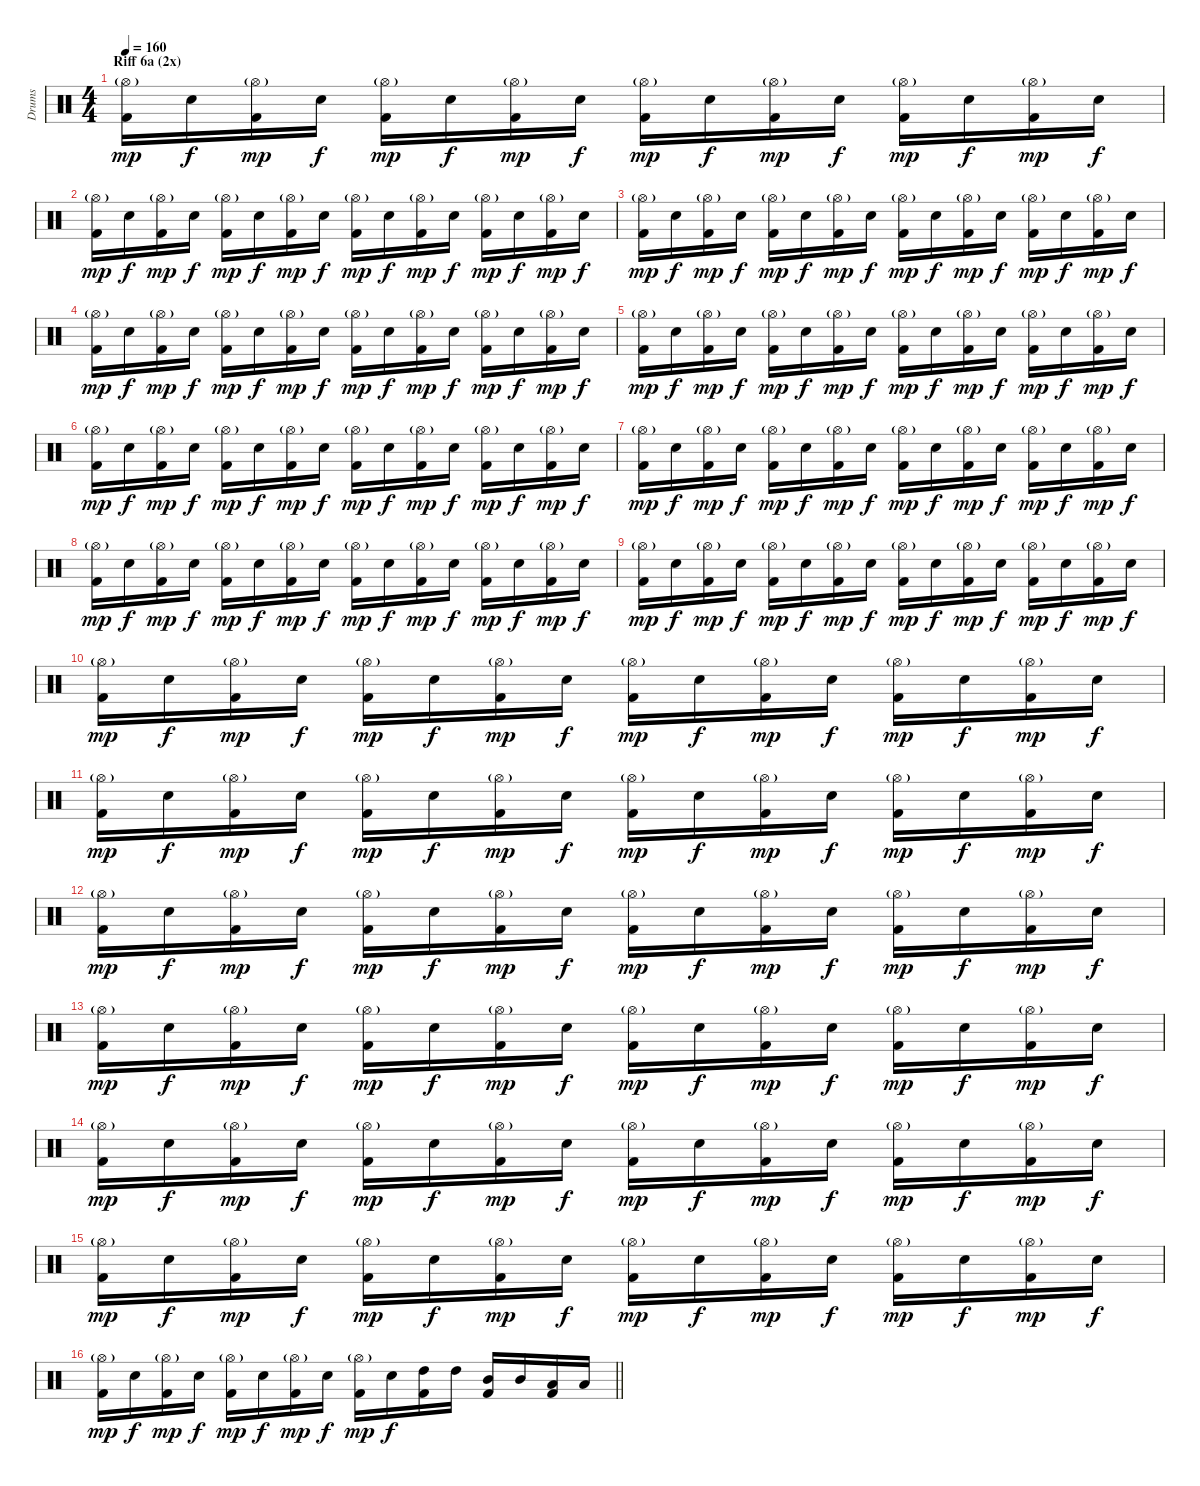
\track ("Drums" "Drums") {instrument percussion}
\staff {score}
\articulation defaults
\ts (4 4)
\section ("" "Riff 6a (2x)")
\tempo 160
\clef neutral
\ks c
("Hi-Hat (open)"{g} "Kick (hit) 2").16{dy mp} "Electric Snare (hit)".16{dy f} ("Hi-Hat (open)"{g} "Kick (hit) 2").16{dy mp} "Electric Snare (hit)".16{dy f} ("Hi-Hat (open)"{g} "Kick (hit) 2").16{dy mp} "Electric Snare (hit)".16{dy f} ("Hi-Hat (open)"{g} "Kick (hit) 2").16{dy mp} "Electric Snare (hit)".16{dy f} ("Hi-Hat (open)"{g} "Kick (hit) 2").16{dy mp} "Electric Snare (hit)".16{dy f} ("Hi-Hat (open)"{g} "Kick (hit) 2").16{dy mp} "Electric Snare (hit)".16{dy f} ("Hi-Hat (open)"{g} "Kick (hit) 2").16{dy mp} "Electric Snare (hit)".16{dy f} ("Hi-Hat (open)"{g} "Kick (hit) 2").16{dy mp} "Electric Snare (hit)".16{dy f} |
("Hi-Hat (open)"{g} "Kick (hit) 2").16{dy mp} "Electric Snare (hit)".16{dy f} ("Hi-Hat (open)"{g} "Kick (hit) 2").16{dy mp} "Electric Snare (hit)".16{dy f} ("Hi-Hat (open)"{g} "Kick (hit) 2").16{dy mp} "Electric Snare (hit)".16{dy f} ("Hi-Hat (open)"{g} "Kick (hit) 2").16{dy mp} "Electric Snare (hit)".16{dy f} ("Hi-Hat (open)"{g} "Kick (hit) 2").16{dy mp} "Electric Snare (hit)".16{dy f} ("Hi-Hat (open)"{g} "Kick (hit) 2").16{dy mp} "Electric Snare (hit)".16{dy f} ("Hi-Hat (open)"{g} "Kick (hit) 2").16{dy mp} "Electric Snare (hit)".16{dy f} ("Hi-Hat (open)"{g} "Kick (hit) 2").16{dy mp} "Electric Snare (hit)".16{dy f} |
("Hi-Hat (open)"{g} "Kick (hit) 2").16{dy mp} "Electric Snare (hit)".16{dy f} ("Hi-Hat (open)"{g} "Kick (hit) 2").16{dy mp} "Electric Snare (hit)".16{dy f} ("Hi-Hat (open)"{g} "Kick (hit) 2").16{dy mp} "Electric Snare (hit)".16{dy f} ("Hi-Hat (open)"{g} "Kick (hit) 2").16{dy mp} "Electric Snare (hit)".16{dy f} ("Hi-Hat (open)"{g} "Kick (hit) 2").16{dy mp} "Electric Snare (hit)".16{dy f} ("Hi-Hat (open)"{g} "Kick (hit) 2").16{dy mp} "Electric Snare (hit)".16{dy f} ("Hi-Hat (open)"{g} "Kick (hit) 2").16{dy mp} "Electric Snare (hit)".16{dy f} ("Hi-Hat (open)"{g} "Kick (hit) 2").16{dy mp} "Electric Snare (hit)".16{dy f} |
("Hi-Hat (open)"{g} "Kick (hit) 2").16{dy mp} "Electric Snare (hit)".16{dy f} ("Hi-Hat (open)"{g} "Kick (hit) 2").16{dy mp} "Electric Snare (hit)".16{dy f} ("Hi-Hat (open)"{g} "Kick (hit) 2").16{dy mp} "Electric Snare (hit)".16{dy f} ("Hi-Hat (open)"{g} "Kick (hit) 2").16{dy mp} "Electric Snare (hit)".16{dy f} ("Hi-Hat (open)"{g} "Kick (hit) 2").16{dy mp} "Electric Snare (hit)".16{dy f} ("Hi-Hat (open)"{g} "Kick (hit) 2").16{dy mp} "Electric Snare (hit)".16{dy f} ("Hi-Hat (open)"{g} "Kick (hit) 2").16{dy mp} "Electric Snare (hit)".16{dy f} ("Hi-Hat (open)"{g} "Kick (hit) 2").16{dy mp} "Electric Snare (hit)".16{dy f} |
("Hi-Hat (open)"{g} "Kick (hit) 2").16{dy mp} "Electric Snare (hit)".16{dy f} ("Hi-Hat (open)"{g} "Kick (hit) 2").16{dy mp} "Electric Snare (hit)".16{dy f} ("Hi-Hat (open)"{g} "Kick (hit) 2").16{dy mp} "Electric Snare (hit)".16{dy f} ("Hi-Hat (open)"{g} "Kick (hit) 2").16{dy mp} "Electric Snare (hit)".16{dy f} ("Hi-Hat (open)"{g} "Kick (hit) 2").16{dy mp} "Electric Snare (hit)".16{dy f} ("Hi-Hat (open)"{g} "Kick (hit) 2").16{dy mp} "Electric Snare (hit)".16{dy f} ("Hi-Hat (open)"{g} "Kick (hit) 2").16{dy mp} "Electric Snare (hit)".16{dy f} ("Hi-Hat (open)"{g} "Kick (hit) 2").16{dy mp} "Electric Snare (hit)".16{dy f} |
("Hi-Hat (open)"{g} "Kick (hit) 2").16{dy mp} "Electric Snare (hit)".16{dy f} ("Hi-Hat (open)"{g} "Kick (hit) 2").16{dy mp} "Electric Snare (hit)".16{dy f} ("Hi-Hat (open)"{g} "Kick (hit) 2").16{dy mp} "Electric Snare (hit)".16{dy f} ("Hi-Hat (open)"{g} "Kick (hit) 2").16{dy mp} "Electric Snare (hit)".16{dy f} ("Hi-Hat (open)"{g} "Kick (hit) 2").16{dy mp} "Electric Snare (hit)".16{dy f} ("Hi-Hat (open)"{g} "Kick (hit) 2").16{dy mp} "Electric Snare (hit)".16{dy f} ("Hi-Hat (open)"{g} "Kick (hit) 2").16{dy mp} "Electric Snare (hit)".16{dy f} ("Hi-Hat (open)"{g} "Kick (hit) 2").16{dy mp} "Electric Snare (hit)".16{dy f} |
("Hi-Hat (open)"{g} "Kick (hit) 2").16{dy mp} "Electric Snare (hit)".16{dy f} ("Hi-Hat (open)"{g} "Kick (hit) 2").16{dy mp} "Electric Snare (hit)".16{dy f} ("Hi-Hat (open)"{g} "Kick (hit) 2").16{dy mp} "Electric Snare (hit)".16{dy f} ("Hi-Hat (open)"{g} "Kick (hit) 2").16{dy mp} "Electric Snare (hit)".16{dy f} ("Hi-Hat (open)"{g} "Kick (hit) 2").16{dy mp} "Electric Snare (hit)".16{dy f} ("Hi-Hat (open)"{g} "Kick (hit) 2").16{dy mp} "Electric Snare (hit)".16{dy f} ("Hi-Hat (open)"{g} "Kick (hit) 2").16{dy mp} "Electric Snare (hit)".16{dy f} ("Hi-Hat (open)"{g} "Kick (hit) 2").16{dy mp} "Electric Snare (hit)".16{dy f} |
("Hi-Hat (open)"{g} "Kick (hit) 2").16{dy mp} "Electric Snare (hit)".16{dy f} ("Hi-Hat (open)"{g} "Kick (hit) 2").16{dy mp} "Electric Snare (hit)".16{dy f} ("Hi-Hat (open)"{g} "Kick (hit) 2").16{dy mp} "Electric Snare (hit)".16{dy f} ("Hi-Hat (open)"{g} "Kick (hit) 2").16{dy mp} "Electric Snare (hit)".16{dy f} ("Hi-Hat (open)"{g} "Kick (hit) 2").16{dy mp} "Electric Snare (hit)".16{dy f} ("Hi-Hat (open)"{g} "Kick (hit) 2").16{dy mp} "Electric Snare (hit)".16{dy f} ("Hi-Hat (open)"{g} "Kick (hit) 2").16{dy mp} "Electric Snare (hit)".16{dy f} ("Hi-Hat (open)"{g} "Kick (hit) 2").16{dy mp} "Electric Snare (hit)".16{dy f} |
("Hi-Hat (open)"{g} "Kick (hit) 2").16{dy mp} "Electric Snare (hit)".16{dy f} ("Hi-Hat (open)"{g} "Kick (hit) 2").16{dy mp} "Electric Snare (hit)".16{dy f} ("Hi-Hat (open)"{g} "Kick (hit) 2").16{dy mp} "Electric Snare (hit)".16{dy f} ("Hi-Hat (open)"{g} "Kick (hit) 2").16{dy mp} "Electric Snare (hit)".16{dy f} ("Hi-Hat (open)"{g} "Kick (hit) 2").16{dy mp} "Electric Snare (hit)".16{dy f} ("Hi-Hat (open)"{g} "Kick (hit) 2").16{dy mp} "Electric Snare (hit)".16{dy f} ("Hi-Hat (open)"{g} "Kick (hit) 2").16{dy mp} "Electric Snare (hit)".16{dy f} ("Hi-Hat (open)"{g} "Kick (hit) 2").16{dy mp} "Electric Snare (hit)".16{dy f} |
("Hi-Hat (open)"{g} "Kick (hit) 2").16{dy mp} "Electric Snare (hit)".16{dy f} ("Hi-Hat (open)"{g} "Kick (hit) 2").16{dy mp} "Electric Snare (hit)".16{dy f} ("Hi-Hat (open)"{g} "Kick (hit) 2").16{dy mp} "Electric Snare (hit)".16{dy f} ("Hi-Hat (open)"{g} "Kick (hit) 2").16{dy mp} "Electric Snare (hit)".16{dy f} ("Hi-Hat (open)"{g} "Kick (hit) 2").16{dy mp} "Electric Snare (hit)".16{dy f} ("Hi-Hat (open)"{g} "Kick (hit) 2").16{dy mp} "Electric Snare (hit)".16{dy f} ("Hi-Hat (open)"{g} "Kick (hit) 2").16{dy mp} "Electric Snare (hit)".16{dy f} ("Hi-Hat (open)"{g} "Kick (hit) 2").16{dy mp} "Electric Snare (hit)".16{dy f} |
("Hi-Hat (open)"{g} "Kick (hit) 2").16{dy mp} "Electric Snare (hit)".16{dy f} ("Hi-Hat (open)"{g} "Kick (hit) 2").16{dy mp} "Electric Snare (hit)".16{dy f} ("Hi-Hat (open)"{g} "Kick (hit) 2").16{dy mp} "Electric Snare (hit)".16{dy f} ("Hi-Hat (open)"{g} "Kick (hit) 2").16{dy mp} "Electric Snare (hit)".16{dy f} ("Hi-Hat (open)"{g} "Kick (hit) 2").16{dy mp} "Electric Snare (hit)".16{dy f} ("Hi-Hat (open)"{g} "Kick (hit) 2").16{dy mp} "Electric Snare (hit)".16{dy f} ("Hi-Hat (open)"{g} "Kick (hit) 2").16{dy mp} "Electric Snare (hit)".16{dy f} ("Hi-Hat (open)"{g} "Kick (hit) 2").16{dy mp} "Electric Snare (hit)".16{dy f} |
("Hi-Hat (open)"{g} "Kick (hit) 2").16{dy mp} "Electric Snare (hit)".16{dy f} ("Hi-Hat (open)"{g} "Kick (hit) 2").16{dy mp} "Electric Snare (hit)".16{dy f} ("Hi-Hat (open)"{g} "Kick (hit) 2").16{dy mp} "Electric Snare (hit)".16{dy f} ("Hi-Hat (open)"{g} "Kick (hit) 2").16{dy mp} "Electric Snare (hit)".16{dy f} ("Hi-Hat (open)"{g} "Kick (hit) 2").16{dy mp} "Electric Snare (hit)".16{dy f} ("Hi-Hat (open)"{g} "Kick (hit) 2").16{dy mp} "Electric Snare (hit)".16{dy f} ("Hi-Hat (open)"{g} "Kick (hit) 2").16{dy mp} "Electric Snare (hit)".16{dy f} ("Hi-Hat (open)"{g} "Kick (hit) 2").16{dy mp} "Electric Snare (hit)".16{dy f} |
("Hi-Hat (open)"{g} "Kick (hit) 2").16{dy mp} "Electric Snare (hit)".16{dy f} ("Hi-Hat (open)"{g} "Kick (hit) 2").16{dy mp} "Electric Snare (hit)".16{dy f} ("Hi-Hat (open)"{g} "Kick (hit) 2").16{dy mp} "Electric Snare (hit)".16{dy f} ("Hi-Hat (open)"{g} "Kick (hit) 2").16{dy mp} "Electric Snare (hit)".16{dy f} ("Hi-Hat (open)"{g} "Kick (hit) 2").16{dy mp} "Electric Snare (hit)".16{dy f} ("Hi-Hat (open)"{g} "Kick (hit) 2").16{dy mp} "Electric Snare (hit)".16{dy f} ("Hi-Hat (open)"{g} "Kick (hit) 2").16{dy mp} "Electric Snare (hit)".16{dy f} ("Hi-Hat (open)"{g} "Kick (hit) 2").16{dy mp} "Electric Snare (hit)".16{dy f} |
("Hi-Hat (open)"{g} "Kick (hit) 2").16{dy mp} "Electric Snare (hit)".16{dy f} ("Hi-Hat (open)"{g} "Kick (hit) 2").16{dy mp} "Electric Snare (hit)".16{dy f} ("Hi-Hat (open)"{g} "Kick (hit) 2").16{dy mp} "Electric Snare (hit)".16{dy f} ("Hi-Hat (open)"{g} "Kick (hit) 2").16{dy mp} "Electric Snare (hit)".16{dy f} ("Hi-Hat (open)"{g} "Kick (hit) 2").16{dy mp} "Electric Snare (hit)".16{dy f} ("Hi-Hat (open)"{g} "Kick (hit) 2").16{dy mp} "Electric Snare (hit)".16{dy f} ("Hi-Hat (open)"{g} "Kick (hit) 2").16{dy mp} "Electric Snare (hit)".16{dy f} ("Hi-Hat (open)"{g} "Kick (hit) 2").16{dy mp} "Electric Snare (hit)".16{dy f} |
("Hi-Hat (open)"{g} "Kick (hit) 2").16{dy mp} "Electric Snare (hit)".16{dy f} ("Hi-Hat (open)"{g} "Kick (hit) 2").16{dy mp} "Electric Snare (hit)".16{dy f} ("Hi-Hat (open)"{g} "Kick (hit) 2").16{dy mp} "Electric Snare (hit)".16{dy f} ("Hi-Hat (open)"{g} "Kick (hit) 2").16{dy mp} "Electric Snare (hit)".16{dy f} ("Hi-Hat (open)"{g} "Kick (hit) 2").16{dy mp} "Electric Snare (hit)".16{dy f} ("Hi-Hat (open)"{g} "Kick (hit) 2").16{dy mp} "Electric Snare (hit)".16{dy f} ("Hi-Hat (open)"{g} "Kick (hit) 2").16{dy mp} "Electric Snare (hit)".16{dy f} ("Hi-Hat (open)"{g} "Kick (hit) 2").16{dy mp} "Electric Snare (hit)".16{dy f} |
\barLineRight lightlight
("Hi-Hat (open)"{g} "Kick (hit) 2").16{dy mp} "Electric Snare (hit)".16{dy f} ("Hi-Hat (open)"{g} "Kick (hit) 2").16{dy mp} "Electric Snare (hit)".16{dy f} ("Hi-Hat (open)"{g} "Kick (hit) 2").16{dy mp} "Electric Snare (hit)".16{dy f} ("Hi-Hat (open)"{g} "Kick (hit) 2").16{dy mp} "Electric Snare (hit)".16{dy f} ("Hi-Hat (open)"{g} "Kick (hit) 2").16{dy mp} "Electric Snare (hit)".16{dy f} ("High Tom (hit)" "Kick (hit) 2").16 "High Tom (hit)".16 ("Mid Tom (hit)" "Kick (hit) 2").16 "Mid Tom (hit)".16 ("Low Tom (hit)" "Kick (hit) 2").16 "Low Tom (hit)".16
